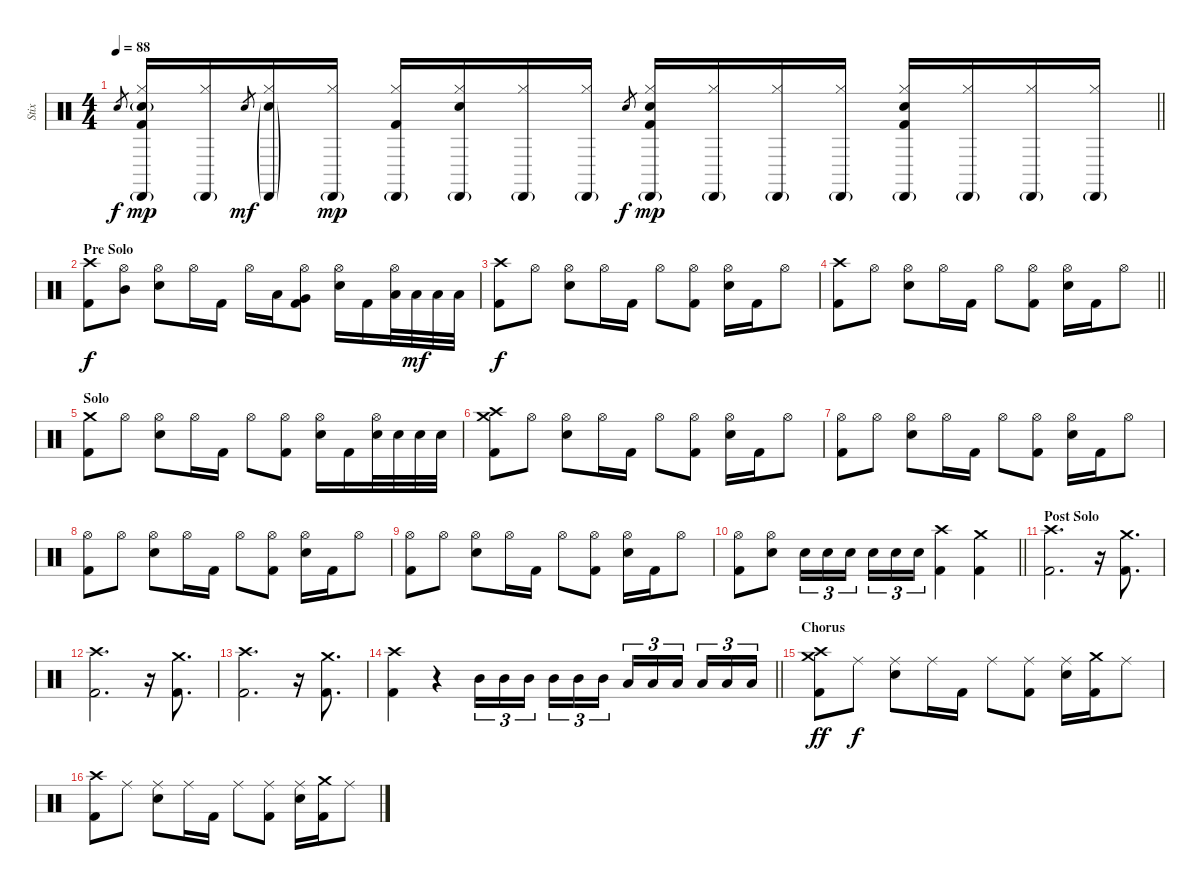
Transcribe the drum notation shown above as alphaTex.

\track ("Stix" "Stix") {instrument percussion}
\staff {score}
\articulation defaults
\ts (4 4)
\tempo 88
\clef neutral
\barLineRight lightlight
\ks c "Electric Snare (hit)".8{gr dy f}
("Cabasa (hit)"{g} "Hi-Hat (closed)" "Electric Snare (hit)"{g} "Kick (hit) 2").16{dy mp} ("Cabasa (hit)"{g} "Hi-Hat (closed)").16 "Electric Snare (hit)".8{gr dy mf} ("Cabasa (hit)"{g} "Hi-Hat (closed)" "Electric Snare (hit)"{g}).16 ("Cabasa (hit)"{g} "Hi-Hat (closed)").16{dy mp} ("Cabasa (hit)"{g} "Hi-Hat (closed)" "Kick (hit) 2").16 ("Cabasa (hit)"{g} "Hi-Hat (closed)" "Electric Snare (hit)").16 ("Cabasa (hit)"{g} "Hi-Hat (closed)").16 ("Cabasa (hit)"{g} "Hi-Hat (closed)").16 "Electric Snare (hit)".8{gr dy f} ("Cabasa (hit)"{g} "Hi-Hat (closed)" "Electric Snare (hit)" "Kick (hit) 2").16{dy mp} ("Cabasa (hit)"{g} "Hi-Hat (closed)").16 ("Cabasa (hit)"{g} "Hi-Hat (closed)").16 ("Cabasa (hit)"{g} "Hi-Hat (closed)").16 ("Cabasa (hit)"{g} "Hi-Hat (closed)" "Electric Snare (hit)" "Kick (hit) 2").16 ("Cabasa (hit)"{g} "Hi-Hat (closed)").16 ("Cabasa (hit)"{g} "Hi-Hat (closed)").16 ("Cabasa (hit)"{g} "Hi-Hat (closed)").16 |
\section ("" "Pre Solo")
("Crash high (hit)" "Kick (hit) 2").8{dy f} ("Mid Tom (hit)" "Hi-Hat (open)").8 ("Hi-Hat (open)" "Electric Snare (hit)").8 "Hi-Hat (open)".16 "Kick (hit) 2".16 "Hi-Hat (open)".16 "Low Tom (hit)".16 ("Very Low Tom (hit)" "Hi-Hat (open)" "Kick (hit) 2").8 ("Hi-Hat (open)" "Electric Snare (hit)").16 "Kick (hit) 2".16 ("Low Floor Tom (hit)" "Hi-Hat (open)").32 "Low Floor Tom (hit)".32{dy mf} "Low Floor Tom (hit)".32 "Low Floor Tom (hit)".32 |
("Crash high (hit)" "Kick (hit) 2").8{dy f} "Hi-Hat (open)".8 ("Hi-Hat (open)" "Electric Snare (hit)").8 "Hi-Hat (open)".16 "Kick (hit) 2".16 "Hi-Hat (open)".8 ("Hi-Hat (open)" "Kick (hit) 2").8 ("Hi-Hat (open)" "Electric Snare (hit)").16 "Kick (hit) 2".16 "Hi-Hat (open)".8 |
\barLineRight lightlight
("Crash high (hit)" "Kick (hit) 2").8 "Hi-Hat (open)".8 ("Hi-Hat (open)" "Electric Snare (hit)").8 "Hi-Hat (open)".16 "Kick (hit) 2".16 "Hi-Hat (open)".8 ("Hi-Hat (open)" "Kick (hit) 2").8 ("Hi-Hat (open)" "Electric Snare (hit)").16 "Kick (hit) 2".16 "Hi-Hat (open)".8 |
\section ("" "Solo")
("Crash medium (hit)" "Kick (hit) 2").8 "Hi-Hat (open)".8 ("Hi-Hat (open)" "Electric Snare (hit)").8 "Hi-Hat (open)".16 "Kick (hit) 2".16 "Hi-Hat (open)".8 ("Hi-Hat (open)" "Kick (hit) 2").8 ("Hi-Hat (open)" "Electric Snare (hit)").16 "Kick (hit) 2".16 ("Hi-Hat (open)" "Electric Snare (hit)").32 "Electric Snare (hit)".32 "Electric Snare (hit)".32 "Electric Snare (hit)".32 |
("Crash high (hit)" "Crash medium (hit)" "Kick (hit) 2").8 "Hi-Hat (open)".8 ("Hi-Hat (open)" "Electric Snare (hit)").8 "Hi-Hat (open)".16 "Kick (hit) 2".16 "Hi-Hat (open)".8 ("Hi-Hat (open)" "Kick (hit) 2").8 ("Hi-Hat (open)" "Electric Snare (hit)").16 "Kick (hit) 2".16 "Hi-Hat (open)".8 |
("Hi-Hat (open)" "Kick (hit) 2").8 "Hi-Hat (open)".8 ("Hi-Hat (open)" "Electric Snare (hit)").8 "Hi-Hat (open)".16 "Kick (hit) 2".16 "Hi-Hat (open)".8 ("Hi-Hat (open)" "Kick (hit) 2").8 ("Hi-Hat (open)" "Electric Snare (hit)").16 "Kick (hit) 2".16 "Hi-Hat (open)".8 |
("Hi-Hat (open)" "Kick (hit) 2").8 "Hi-Hat (open)".8 ("Hi-Hat (open)" "Electric Snare (hit)").8 "Hi-Hat (open)".16 "Kick (hit) 2".16 "Hi-Hat (open)".8 ("Hi-Hat (open)" "Kick (hit) 2").8 ("Hi-Hat (open)" "Electric Snare (hit)").16 "Kick (hit) 2".16 "Hi-Hat (open)".8 |
("Hi-Hat (open)" "Kick (hit) 2").8 "Hi-Hat (open)".8 ("Hi-Hat (open)" "Electric Snare (hit)").8 "Hi-Hat (open)".16 "Kick (hit) 2".16 "Hi-Hat (open)".8 ("Hi-Hat (open)" "Kick (hit) 2").8 ("Hi-Hat (open)" "Electric Snare (hit)").16 "Kick (hit) 2".16 "Hi-Hat (open)".8 |
\barLineRight lightlight
("Hi-Hat (open)" "Kick (hit) 2").8 ("Hi-Hat (open)" "Electric Snare (hit)").8 "Electric Snare (hit)".16{tu (3 2)} "Electric Snare (hit)".16{tu (3 2)} "Electric Snare (hit)".16{tu (3 2) beam splitsecondary} "Electric Snare (hit)".16{tu (3 2)} "Electric Snare (hit)".16{tu (3 2)} "Electric Snare (hit)".16{tu (3 2)} ("Crash high (hit)" "Kick (hit) 2").4 ("Crash medium (hit)" "Kick (hit) 2").4 |
\section ("" "Post Solo")
("Crash high (hit)" "Kick (hit) 2").2{d} r.16 ("Crash medium (hit)" "Kick (hit) 2").8{d} |
("Crash high (hit)" "Kick (hit) 2").2{d} r.16 ("Crash medium (hit)" "Kick (hit) 2").8{d} |
("Crash high (hit)" "Kick (hit) 2").2{d} r.16 ("Crash medium (hit)" "Kick (hit) 2").8{d} |
\barLineRight lightlight
("Crash high (hit)" "Kick (hit) 2").4 r.4 "Mid Tom (hit)".16{tu (3 2)} "Mid Tom (hit)".16{tu (3 2)} "Mid Tom (hit)".16{tu (3 2) beam splitsecondary} "Mid Tom (hit)".16{tu (3 2)} "Mid Tom (hit)".16{tu (3 2)} "Mid Tom (hit)".16{tu (3 2)} "Low Tom (hit)".16{tu (3 2)} "Low Tom (hit)".16{tu (3 2)} "Low Tom (hit)".16{tu (3 2) beam splitsecondary} "Low Tom (hit)".16{tu (3 2)} "Low Tom (hit)".16{tu (3 2)} "Low Tom (hit)".16{tu (3 2)} |
\section ("" "Chorus")
("Crash high (hit)" "Crash medium (hit)" "Kick (hit) 2").8{dy ff} "Ride (middle)".8{dy f} ("Ride (middle)" "Electric Snare (hit)").8 "Ride (middle)".16 "Kick (hit) 2".16 "Ride (middle)".8 ("Ride (middle)" "Kick (hit) 2").8 ("Ride (middle)" "Electric Snare (hit)").16 ("Crash medium (hit)" "Kick (hit) 2").16 "Ride (middle)".8 |
("Crash high (hit)" "Kick (hit) 2").8 "Ride (middle)".8 ("Ride (middle)" "Electric Snare (hit)").8 "Ride (middle)".16 "Kick (hit) 2".16 "Ride (middle)".8 ("Ride (middle)" "Kick (hit) 2").8 ("Ride (middle)" "Electric Snare (hit)").16 ("Crash medium (hit)" "Kick (hit) 2").16 "Ride (middle)".8
